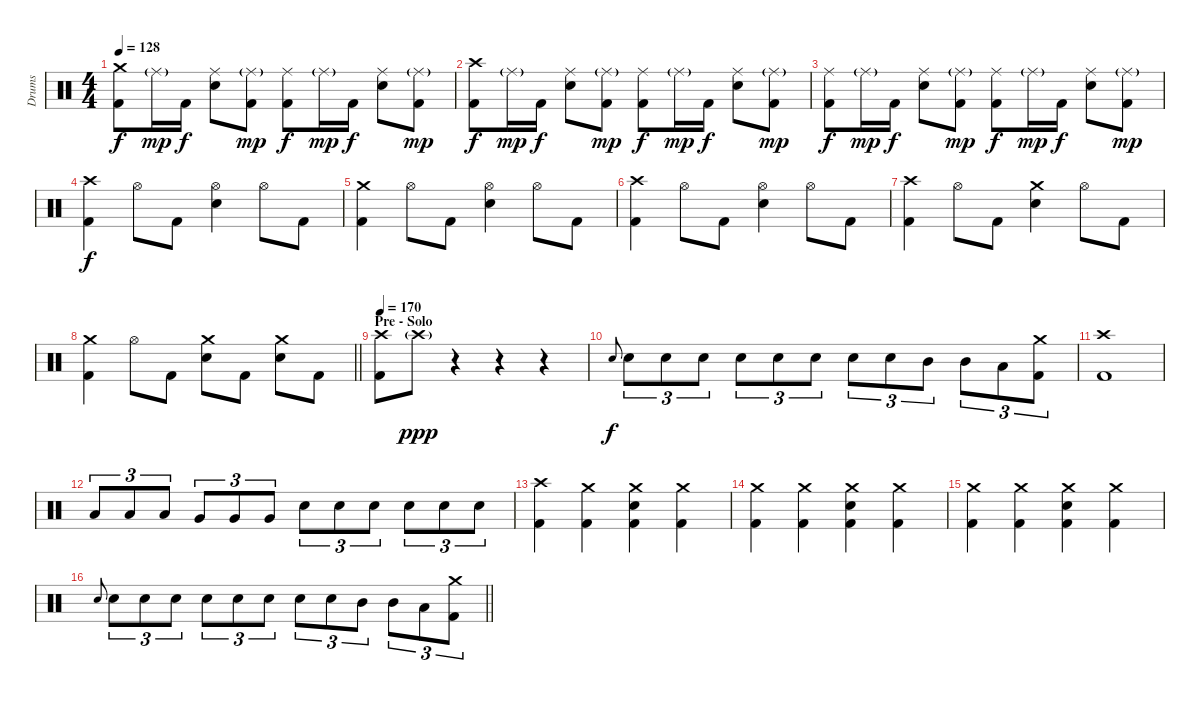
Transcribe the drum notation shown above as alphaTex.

\track ("Drums" "Drums") {instrument percussion}
\staff {score}
\articulation defaults
\ts (4 4)
\tempo 128
\clef neutral
\ks c
("Crash medium (hit)" "Kick (hit) 2").8{dy f} "Ride (middle)"{g}.16{dy mp} "Kick (hit) 2".16{dy f} ("Ride (middle)" "Electric Snare (hit)").8 ("Ride (middle)"{g} "Kick (hit) 2").8{dy mp} ("Ride (middle)" "Kick (hit) 2").8{dy f} "Ride (middle)"{g}.16{dy mp} "Kick (hit) 2".16{dy f} ("Ride (middle)" "Electric Snare (hit)").8 ("Ride (middle)"{g} "Kick (hit) 2").8{dy mp} |
("Crash high (hit)" "Kick (hit) 2").8{dy f} "Ride (middle)"{g}.16{dy mp} "Kick (hit) 2".16{dy f} ("Ride (middle)" "Electric Snare (hit)").8 ("Ride (middle)"{g} "Kick (hit) 2").8{dy mp} ("Ride (middle)" "Kick (hit) 2").8{dy f} "Ride (middle)"{g}.16{dy mp} "Kick (hit) 2".16{dy f} ("Ride (middle)" "Electric Snare (hit)").8 ("Ride (middle)"{g} "Kick (hit) 2").8{dy mp} |
("Ride (middle)" "Kick (hit) 2").8{dy f} "Ride (middle)"{g}.16{dy mp} "Kick (hit) 2".16{dy f} ("Ride (middle)" "Electric Snare (hit)").8 ("Ride (middle)"{g} "Kick (hit) 2").8{dy mp} ("Ride (middle)" "Kick (hit) 2").8{dy f} "Ride (middle)"{g}.16{dy mp} "Kick (hit) 2".16{dy f} ("Ride (middle)" "Electric Snare (hit)").8 ("Ride (middle)"{g} "Kick (hit) 2").8{dy mp} |
("Crash high (hit)" "Kick (hit) 2").4{dy f} "Hi-Hat (open)".8 "Kick (hit) 2".8 ("Hi-Hat (open)" "Electric Snare (hit)").4 "Hi-Hat (open)".8 "Kick (hit) 2".8 |
("Crash medium (hit)" "Kick (hit) 2").4 "Hi-Hat (open)".8 "Kick (hit) 2".8 ("Hi-Hat (open)" "Electric Snare (hit)").4 "Hi-Hat (open)".8 "Kick (hit) 2".8 |
("Crash high (hit)" "Kick (hit) 2").4 "Hi-Hat (open)".8 "Kick (hit) 2".8 ("Hi-Hat (open)" "Electric Snare (hit)").4 "Hi-Hat (open)".8 "Kick (hit) 2".8 |
("Crash high (hit)" "Kick (hit) 2").4 "Hi-Hat (open)".8 "Kick (hit) 2".8 ("Crash medium (hit)" "Electric Snare (hit)").4 "Hi-Hat (open)".8 "Kick (hit) 2".8 |
\barLineRight lightlight
("Crash medium (hit)" "Kick (hit) 2").4 "Hi-Hat (open)".8 "Kick (hit) 2".8 ("Crash medium (hit)" "Electric Snare (hit)").8 "Kick (hit) 2".8 ("Crash medium (hit)" "Electric Snare (hit)").8 "Kick (hit) 2".8 |
\section ("" "Pre - Solo")
\tempo 170
("Crash high (hit)" "Kick (hit) 2").8 "Crash high (hit)"{g}.8{dy ppp} r.4 r.4 r.4 |
"Electric Snare (hit)".8{gr onbeat dy f} "Electric Snare (hit)".8{tu (3 2)} "Electric Snare (hit)".8{tu (3 2)} "Electric Snare (hit)".8{tu (3 2)} "Electric Snare (hit)".8{tu (3 2)} "Electric Snare (hit)".8{tu (3 2)} "Electric Snare (hit)".8{tu (3 2)} "Electric Snare (hit)".8{tu (3 2)} "Electric Snare (hit)".8{tu (3 2)} "Mid Tom (hit)".8{tu (3 2)} "Mid Tom (hit)".8{tu (3 2)} "Low Tom (hit)".8{tu (3 2)} ("Crash medium (hit)" "Kick (hit) 2").8{tu (3 2)} |
("Crash high (hit)" "Kick (hit) 2").1 |
"Low Tom (hit)".8{tu (3 2)} "Low Tom (hit)".8{tu (3 2)} "Low Tom (hit)".8{tu (3 2)} "Very Low Tom (hit)".8{tu (3 2)} "Very Low Tom (hit)".8{tu (3 2)} "Very Low Tom (hit)".8{tu (3 2)} "Electric Snare (hit)".8{tu (3 2)} "Electric Snare (hit)".8{tu (3 2)} "Electric Snare (hit)".8{tu (3 2)} "Electric Snare (hit)".8{tu (3 2)} "Electric Snare (hit)".8{tu (3 2)} "Electric Snare (hit)".8{tu (3 2)} |
("Crash high (hit)" "Kick (hit) 2").4 ("Crash medium (hit)" "Kick (hit) 2").4 ("Crash medium (hit)" "Electric Snare (hit)" "Kick (hit) 2").4 ("Crash medium (hit)" "Kick (hit) 2").4 |
("Crash medium (hit)" "Kick (hit) 2").4 ("Crash medium (hit)" "Kick (hit) 2").4 ("Crash medium (hit)" "Electric Snare (hit)" "Kick (hit) 2").4 ("Crash medium (hit)" "Kick (hit) 2").4 |
("Crash medium (hit)" "Kick (hit) 2").4 ("Crash medium (hit)" "Kick (hit) 2").4 ("Crash medium (hit)" "Electric Snare (hit)" "Kick (hit) 2").4 ("Crash medium (hit)" "Kick (hit) 2").4 |
\barLineRight lightlight "Electric Snare (hit)".8{gr onbeat} "Electric Snare (hit)".8{tu (3 2)} "Electric Snare (hit)".8{tu (3 2)} "Electric Snare (hit)".8{tu (3 2)} "Electric Snare (hit)".8{tu (3 2)} "Electric Snare (hit)".8{tu (3 2)} "Electric Snare (hit)".8{tu (3 2)} "Electric Snare (hit)".8{tu (3 2)} "Electric Snare (hit)".8{tu (3 2)} "Mid Tom (hit)".8{tu (3 2)} "Mid Tom (hit)".8{tu (3 2)} "Low Tom (hit)".8{tu (3 2)}
("Crash medium (hit)" "Kick (hit) 2").8{tu (3 2)}
